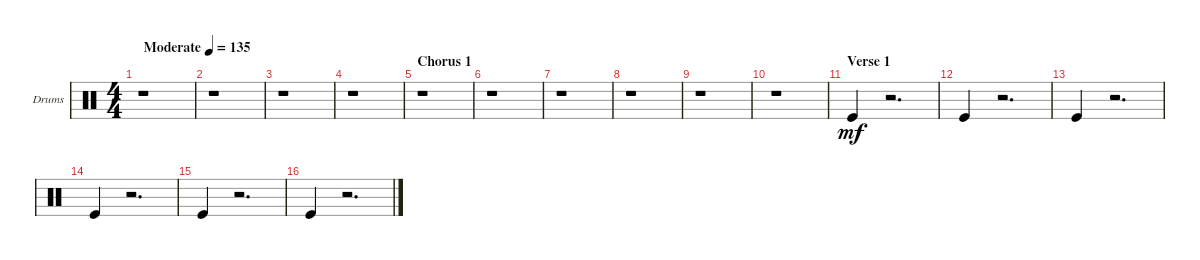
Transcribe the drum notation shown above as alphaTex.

\bracketExtendMode groupsimilarinstruments
\firstSystemTrackNameOrientation horizontal
\otherSystemsTrackNameOrientation horizontal
\chordDiagramsInScore
\track ("Drumkit" "Drums") {instrument percussion}
\staff {score}
\articulation defaults
\ts (4 4)
\tempo (135 "Moderate")
\clef neutral
\ks c
r.1{dy mf} |
r.1 |
r.1 |
r.1 |
\section ("" "Chorus 1")
r.1 |
r.1 |
\scale
0.474178 r.1 |
\beaming (8 2 2 2 2)
\scale
0.262911 r.1 |
\scale
0.262911 r.1 |
r.1 |
\section ("" "Verse 1")
"Kick (hit)".4 r.2{d} |
"Kick (hit)".4 r.2{d} |
"Kick (hit)".4 r.2{d} |
"Kick (hit)".4 r.2{d} |
"Kick (hit)".4 r.2{d} |
"Kick (hit)".4 r.2{d}
